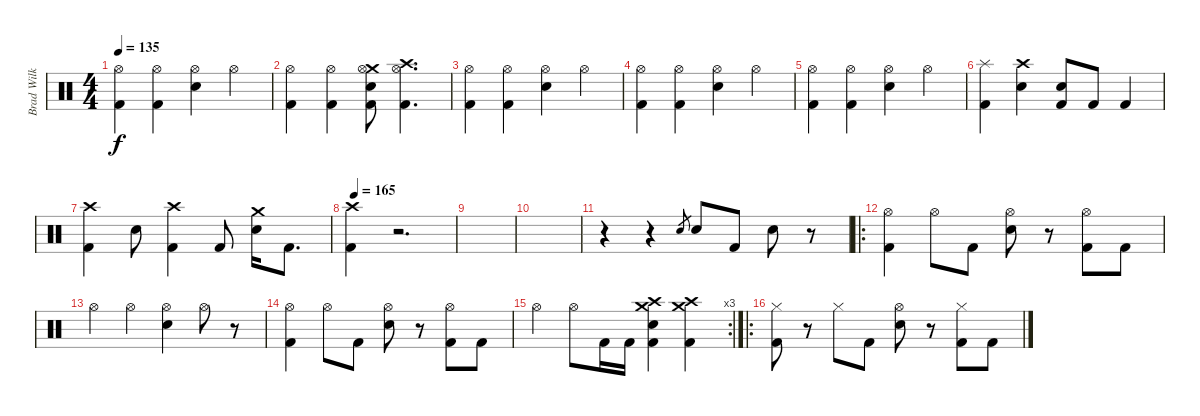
\track ("Brad Wilk" "Brad Wilk") {instrument percussion}
\staff {score}
\articulation defaults
\ts (4 4)
\tempo 135
\clef neutral
\ks c
("Hi-Hat (open)" "Kick (hit) 2").4{dy f} ("Hi-Hat (open)" "Kick (hit) 2").4 ("Hi-Hat (open)" "Electric Snare (hit)").4 "Hi-Hat (open)".4 |
("Hi-Hat (open)" "Kick (hit) 2").4 ("Hi-Hat (open)" "Kick (hit) 2").4 ("Crash medium (hit)" "Hi-Hat (open)" "Electric Snare (hit)" "Kick (hit) 2").8 ("Crash high (hit)" "Hi-Hat (open)" "Kick (hit) 2").4{d} |
("Hi-Hat (open)" "Kick (hit) 2").4 ("Hi-Hat (open)" "Kick (hit) 2").4 ("Hi-Hat (open)" "Electric Snare (hit)").4 "Hi-Hat (open)".4 |
("Hi-Hat (open)" "Kick (hit) 2").4 ("Hi-Hat (open)" "Kick (hit) 2").4 ("Hi-Hat (open)" "Electric Snare (hit)").4 "Hi-Hat (open)".4 |
("Hi-Hat (open)" "Kick (hit) 2").4 ("Hi-Hat (open)" "Kick (hit) 2").4 ("Hi-Hat (open)" "Electric Snare (hit)").4 "Hi-Hat (open)".4 |
("Splash (hit)" "Kick (hit) 2").4 ("Crash high (hit)" "Electric Snare (hit)").4 ("Electric Snare (hit)" "Kick (hit) 2").8 "Kick (hit) 2".8 "Kick (hit) 2".4 |
("Crash high (hit)" "Kick (hit) 2").4 "Electric Snare (hit)".8 ("Crash high (hit)" "Kick (hit) 2").4 "Kick (hit) 2".8 ("Crash medium (hit)" "Electric Snare (hit)").16 "Kick (hit) 2".8{d} |
\tempo (165 0.03125)
("Crash high (hit)" "Kick (hit) 2").4 r.2{d} |
|
|
r.4 r.4 "Electric Snare (hit)".8{gr} "Electric Snare (hit)".8 "Kick (hit) 2".8 "Electric Snare (hit)".8 r.8 |
\ro
("Hi-Hat (open)" "Kick (hit) 2").4 "Hi-Hat (open)".8 "Kick (hit) 2".8 ("Hi-Hat (open)" "Electric Snare (hit)").8 r.8 ("Hi-Hat (open)" "Kick (hit) 2").8 "Kick (hit) 2".8 |
"Hi-Hat (open)".4 "Hi-Hat (open)".4 ("Hi-Hat (open)" "Electric Snare (hit)").4 "Hi-Hat (open)".8 r.8 |
("Hi-Hat (open)" "Kick (hit) 2").4 "Hi-Hat (open)".8 "Kick (hit) 2".8 ("Hi-Hat (open)" "Electric Snare (hit)").8 r.8 ("Hi-Hat (open)" "Kick (hit) 2").8 "Kick (hit) 2".8 |
\rc 3 "Hi-Hat (open)".4 "Hi-Hat (open)".8 "Kick (hit) 2".16 "Kick (hit) 2".16
("Crash medium (hit)" "Crash high (hit)" "Electric Snare (hit)" "Kick (hit) 2").4 ("Crash high (hit)" "Crash medium (hit)" "Kick (hit) 2").4 |
\ro
("Hi-Hat (closed)" "Kick (hit) 2").8 r.8 "Hi-Hat (closed)".8 "Kick (hit) 2".8 ("Hi-Hat (open)" "Electric Snare (hit)").8 r.8 ("Hi-Hat (closed)" "Kick (hit) 2").8 "Kick (hit) 2".8
